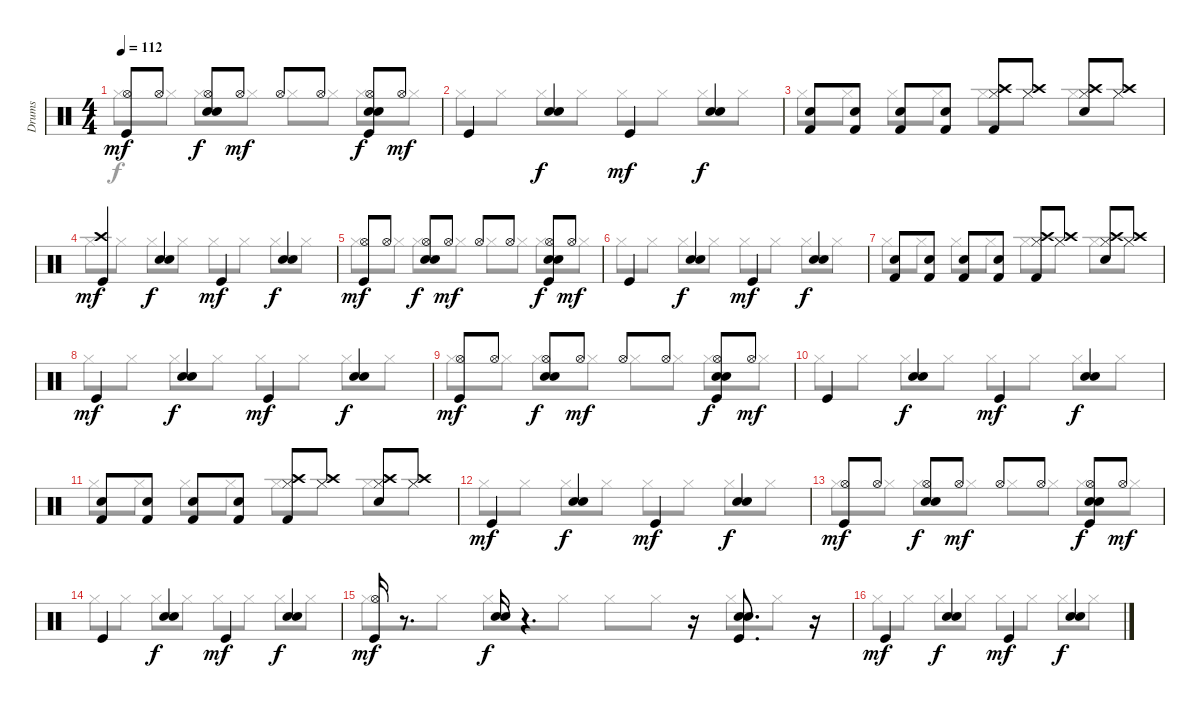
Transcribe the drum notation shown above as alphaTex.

\track ("Drums" "Drums") {instrument percussion}
\staff {score}
\articulation defaults
\voice
\ts (4 4)
\tempo 112
\clef neutral
\ks c
("Hi-Hat (open)" "Kick (hit)").8{dy mf} "Hi-Hat (open)".8 ("Hi-Hat (open)" "Electric Snare (hit)" "Snare (hit) 2").8{dy f} "Hi-Hat (open)".8{dy mf} "Hi-Hat (open)".8 "Hi-Hat (open)".8 ("Hi-Hat (open)" "Electric Snare (hit)" "Snare (hit) 2" "Kick (hit)").8{dy f} "Hi-Hat (open)".8{dy mf} |
"Kick (hit)".4 ("Electric Snare (hit)" "Snare (hit) 2").4{dy f} "Kick (hit)".4{dy mf} ("Electric Snare (hit)" "Snare (hit) 2").4{dy f} |
("Snare (hit) 2" "Kick (hit) 2").8 ("Snare (hit) 2" "Kick (hit) 2").8 ("Snare (hit) 2" "Kick (hit) 2").8 ("Snare (hit) 2" "Kick (hit) 2").8 ("Crash high (hit)" "Kick (hit) 2" "Hi-Hat (closed)").8 ("Crash high (hit)" "Hi-Hat (closed)").8 ("Crash high (hit)" "Snare (hit) 2" "Hi-Hat (closed)").8 ("Crash high (hit)" "Hi-Hat (closed)").8 |
("Kick (hit)" "Crash high (hit)").4{dy mf} ("Electric Snare (hit)" "Snare (hit) 2").4{dy f} "Kick (hit)".4{dy mf} ("Electric Snare (hit)" "Snare (hit) 2").4{dy f} |
("Hi-Hat (open)" "Kick (hit)").8{dy mf} "Hi-Hat (open)".8 ("Hi-Hat (open)" "Electric Snare (hit)" "Snare (hit) 2").8{dy f} "Hi-Hat (open)".8{dy mf} "Hi-Hat (open)".8 "Hi-Hat (open)".8 ("Hi-Hat (open)" "Electric Snare (hit)" "Snare (hit) 2" "Kick (hit)").8{dy f} "Hi-Hat (open)".8{dy mf} |
"Kick (hit)".4 ("Electric Snare (hit)" "Snare (hit) 2").4{dy f} "Kick (hit)".4{dy mf} ("Electric Snare (hit)" "Snare (hit) 2").4{dy f} |
("Snare (hit) 2" "Kick (hit) 2").8 ("Snare (hit) 2" "Kick (hit) 2").8 ("Snare (hit) 2" "Kick (hit) 2").8 ("Snare (hit) 2" "Kick (hit) 2").8 ("Crash high (hit)" "Kick (hit) 2" "Hi-Hat (closed)").8 ("Crash high (hit)" "Hi-Hat (closed)").8 ("Crash high (hit)" "Snare (hit) 2" "Hi-Hat (closed)").8 ("Crash high (hit)" "Hi-Hat (closed)").8 |
"Kick (hit)".4{dy mf} ("Electric Snare (hit)" "Snare (hit) 2").4{dy f} "Kick (hit)".4{dy mf} ("Electric Snare (hit)" "Snare (hit) 2").4{dy f} |
("Hi-Hat (open)" "Kick (hit)").8{dy mf} "Hi-Hat (open)".8 ("Hi-Hat (open)" "Electric Snare (hit)" "Snare (hit) 2").8{dy f} "Hi-Hat (open)".8{dy mf} "Hi-Hat (open)".8 "Hi-Hat (open)".8 ("Hi-Hat (open)" "Electric Snare (hit)" "Snare (hit) 2" "Kick (hit)").8{dy f} "Hi-Hat (open)".8{dy mf} |
"Kick (hit)".4 ("Electric Snare (hit)" "Snare (hit) 2").4{dy f} "Kick (hit)".4{dy mf} ("Electric Snare (hit)" "Snare (hit) 2").4{dy f} |
("Snare (hit) 2" "Kick (hit) 2").8 ("Snare (hit) 2" "Kick (hit) 2").8 ("Snare (hit) 2" "Kick (hit) 2").8 ("Snare (hit) 2" "Kick (hit) 2").8 ("Crash high (hit)" "Kick (hit) 2" "Hi-Hat (closed)").8 ("Crash high (hit)" "Hi-Hat (closed)").8 ("Crash high (hit)" "Snare (hit) 2" "Hi-Hat (closed)").8 ("Crash high (hit)" "Hi-Hat (closed)").8 |
"Kick (hit)".4{dy mf} ("Electric Snare (hit)" "Snare (hit) 2").4{dy f} "Kick (hit)".4{dy mf} ("Electric Snare (hit)" "Snare (hit) 2").4{dy f} |
("Hi-Hat (open)" "Kick (hit)").8{dy mf} "Hi-Hat (open)".8 ("Hi-Hat (open)" "Electric Snare (hit)" "Snare (hit) 2").8{dy f} "Hi-Hat (open)".8{dy mf} "Hi-Hat (open)".8 "Hi-Hat (open)".8 ("Hi-Hat (open)" "Electric Snare (hit)" "Snare (hit) 2" "Kick (hit)").8{dy f} "Hi-Hat (open)".8{dy mf} |
"Kick (hit)".4 ("Electric Snare (hit)" "Snare (hit) 2").4{dy f} "Kick (hit)".4{dy mf} ("Electric Snare (hit)" "Snare (hit) 2").4{dy f} |
("Hi-Hat (open)" "Kick (hit)").16{dy mf} r.8{d} ("Electric Snare (hit)" "Snare (hit) 2").16{dy f} r.4{d} r.16 ("Electric Snare (hit)" "Snare (hit) 2" "Kick (hit)").8{d} r.16 |
"Kick (hit)".4{dy mf} ("Electric Snare (hit)" "Snare (hit) 2").4{dy f} "Kick (hit)".4{dy mf} ("Electric Snare (hit)" "Snare (hit) 2").4{dy f}
\voice
\clef neutral
\ottava regular
\simile none
\ks c "Hi-Hat (closed)".8{dy f} "Hi-Hat (closed)".8 "Hi-Hat (closed)".8 "Hi-Hat (closed)".8 "Hi-Hat (closed)".8 "Hi-Hat (closed)".8 "Hi-Hat (closed)".8 "Hi-Hat (closed)".8
|
"Hi-Hat (closed)".8 "Hi-Hat (closed)".8 "Hi-Hat (closed)".8 "Hi-Hat (closed)".8 "Hi-Hat (closed)".8 "Hi-Hat (closed)".8 "Hi-Hat (closed)".8 "Hi-Hat (closed)".8 |
"Hi-Hat (closed)".8 "Hi-Hat (closed)".8 "Hi-Hat (closed)".8 "Hi-Hat (closed)".8 "Hi-Hat (closed)".8 "Hi-Hat (closed)".8 "Hi-Hat (closed)".8 "Hi-Hat (closed)".8 |
"Hi-Hat (closed)".8 "Hi-Hat (closed)".8 "Hi-Hat (closed)".8 "Hi-Hat (closed)".8 "Hi-Hat (closed)".8 "Hi-Hat (closed)".8 "Hi-Hat (closed)".8 "Hi-Hat (closed)".8 |
"Hi-Hat (closed)".8 "Hi-Hat (closed)".8 "Hi-Hat (closed)".8 "Hi-Hat (closed)".8 "Hi-Hat (closed)".8 "Hi-Hat (closed)".8 "Hi-Hat (closed)".8 "Hi-Hat (closed)".8 |
"Hi-Hat (closed)".8 "Hi-Hat (closed)".8 "Hi-Hat (closed)".8 "Hi-Hat (closed)".8 "Hi-Hat (closed)".8 "Hi-Hat (closed)".8 "Hi-Hat (closed)".8 "Hi-Hat (closed)".8 |
"Hi-Hat (closed)".8 "Hi-Hat (closed)".8 "Hi-Hat (closed)".8 "Hi-Hat (closed)".8 "Hi-Hat (closed)".8 "Hi-Hat (closed)".8 "Hi-Hat (closed)".8 "Hi-Hat (closed)".8 |
"Hi-Hat (closed)".8 "Hi-Hat (closed)".8 "Hi-Hat (closed)".8 "Hi-Hat (closed)".8 "Hi-Hat (closed)".8 "Hi-Hat (closed)".8 "Hi-Hat (closed)".8 "Hi-Hat (closed)".8 |
"Hi-Hat (closed)".8 "Hi-Hat (closed)".8 "Hi-Hat (closed)".8 "Hi-Hat (closed)".8 "Hi-Hat (closed)".8 "Hi-Hat (closed)".8 "Hi-Hat (closed)".8 "Hi-Hat (closed)".8 |
"Hi-Hat (closed)".8 "Hi-Hat (closed)".8 "Hi-Hat (closed)".8 "Hi-Hat (closed)".8 "Hi-Hat (closed)".8 "Hi-Hat (closed)".8 "Hi-Hat (closed)".8 "Hi-Hat (closed)".8 |
"Hi-Hat (closed)".8 "Hi-Hat (closed)".8 "Hi-Hat (closed)".8 "Hi-Hat (closed)".8 "Hi-Hat (closed)".8 "Hi-Hat (closed)".8 "Hi-Hat (closed)".8 "Hi-Hat (closed)".8 |
"Hi-Hat (closed)".8 "Hi-Hat (closed)".8 "Hi-Hat (closed)".8 "Hi-Hat (closed)".8 "Hi-Hat (closed)".8 "Hi-Hat (closed)".8 "Hi-Hat (closed)".8 "Hi-Hat (closed)".8 |
"Hi-Hat (closed)".8 "Hi-Hat (closed)".8 "Hi-Hat (closed)".8 "Hi-Hat (closed)".8 "Hi-Hat (closed)".8 "Hi-Hat (closed)".8 "Hi-Hat (closed)".8 "Hi-Hat (closed)".8 |
"Hi-Hat (closed)".8 "Hi-Hat (closed)".8 "Hi-Hat (closed)".8 "Hi-Hat (closed)".8 "Hi-Hat (closed)".8 "Hi-Hat (closed)".8 "Hi-Hat (closed)".8 "Hi-Hat (closed)".8 |
"Hi-Hat (closed)".8 "Hi-Hat (closed)".8 "Hi-Hat (closed)".8 "Hi-Hat (closed)".8 "Hi-Hat (closed)".8 "Hi-Hat (closed)".8 "Hi-Hat (closed)".8 "Hi-Hat (closed)".8 |
"Hi-Hat (closed)".8 "Hi-Hat (closed)".8 "Hi-Hat (closed)".8 "Hi-Hat (closed)".8 "Hi-Hat (closed)".8 "Hi-Hat (closed)".8 "Hi-Hat (closed)".8 "Hi-Hat (closed)".8
